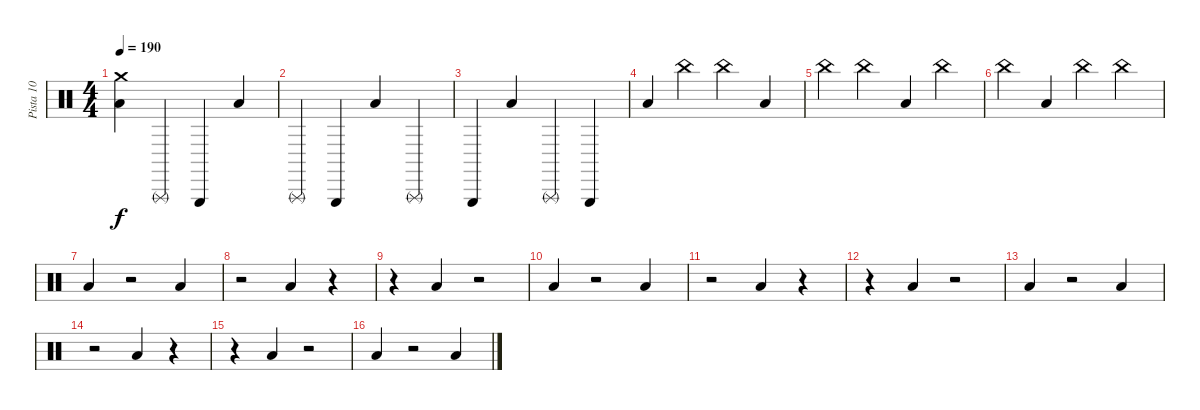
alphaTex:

\track ("Pista 10" "Pista 10") {instrument percussion}
\staff {score}
\articulation defaults
\ts (4 4)
\tempo 190
\clef neutral
\ks c
("Crash medium (hit)" "Low Floor Tom (hit)").4{dy f} "Triangle (rnute)".4 "Triangle (hit)".4 "Low Floor Tom (hit)".4 |
"Triangle (rnute)".4 "Triangle (hit)".4 "Low Floor Tom (hit)".4 "Triangle (rnute)".4 |
"Triangle (hit)".4 "Low Floor Tom (hit)".4 "Triangle (rnute)".4 "Triangle (hit)".4 |
"Low Floor Tom (hit)".4 "China (hit)".4 "China (hit)".4 "Low Floor Tom (hit)".4 |
"China (hit)".4 "China (hit)".4 "Low Floor Tom (hit)".4 "China (hit)".4 |
"China (hit)".4 "Low Floor Tom (hit)".4 "China (hit)".4 "China (hit)".4 |
"Low Floor Tom (hit)".4 r.2 "Low Floor Tom (hit)".4 |
r.2 "Low Floor Tom (hit)".4 r.4 |
r.4 "Low Floor Tom (hit)".4 r.2 |
"Low Floor Tom (hit)".4 r.2 "Low Floor Tom (hit)".4 |
r.2 "Low Floor Tom (hit)".4 r.4 |
r.4 "Low Floor Tom (hit)".4 r.2 |
"Low Floor Tom (hit)".4 r.2 "Low Floor Tom (hit)".4 |
r.2 "Low Floor Tom (hit)".4 r.4 |
r.4 "Low Floor Tom (hit)".4 r.2 |
"Low Floor Tom (hit)".4 r.2 "Low Floor Tom (hit)".4
